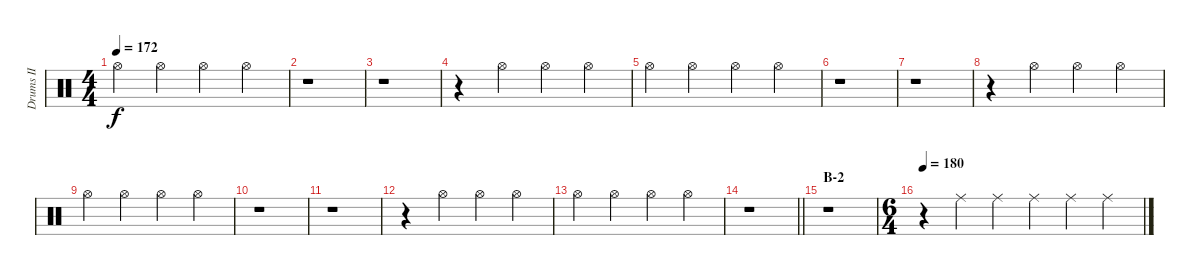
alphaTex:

\track ("Drums II" "Drums II") {instrument percussion}
\staff {score}
\articulation defaults
\ts (4 4)
\tempo 172
\clef neutral
\ks c "Hi-Hat (open)".4{dy f} "Hi-Hat (open)".4 "Hi-Hat (open)".4 "Hi-Hat (open)".4
|
r.1 |
r.1 |
r.4 "Hi-Hat (open)".4 "Hi-Hat (open)".4 "Hi-Hat (open)".4 |
"Hi-Hat (open)".4 "Hi-Hat (open)".4 "Hi-Hat (open)".4 "Hi-Hat (open)".4 |
r.1 |
r.1 |
r.4 "Hi-Hat (open)".4 "Hi-Hat (open)".4 "Hi-Hat (open)".4 |
"Hi-Hat (open)".4 "Hi-Hat (open)".4 "Hi-Hat (open)".4 "Hi-Hat (open)".4 |
r.1 |
r.1 |
r.4 "Hi-Hat (open)".4 "Hi-Hat (open)".4 "Hi-Hat (open)".4 |
"Hi-Hat (open)".4 "Hi-Hat (open)".4 "Hi-Hat (open)".4 "Hi-Hat (open)".4 |
\barLineRight lightlight
r.1 |
\section ("" "B-2")
r.1 |
\ts (6 4)
\tempo 180
r.4 "Ride (middle)".4 "Ride (middle)".4 "Ride (middle)".4 "Ride (middle)".4 "Ride (middle)".4
